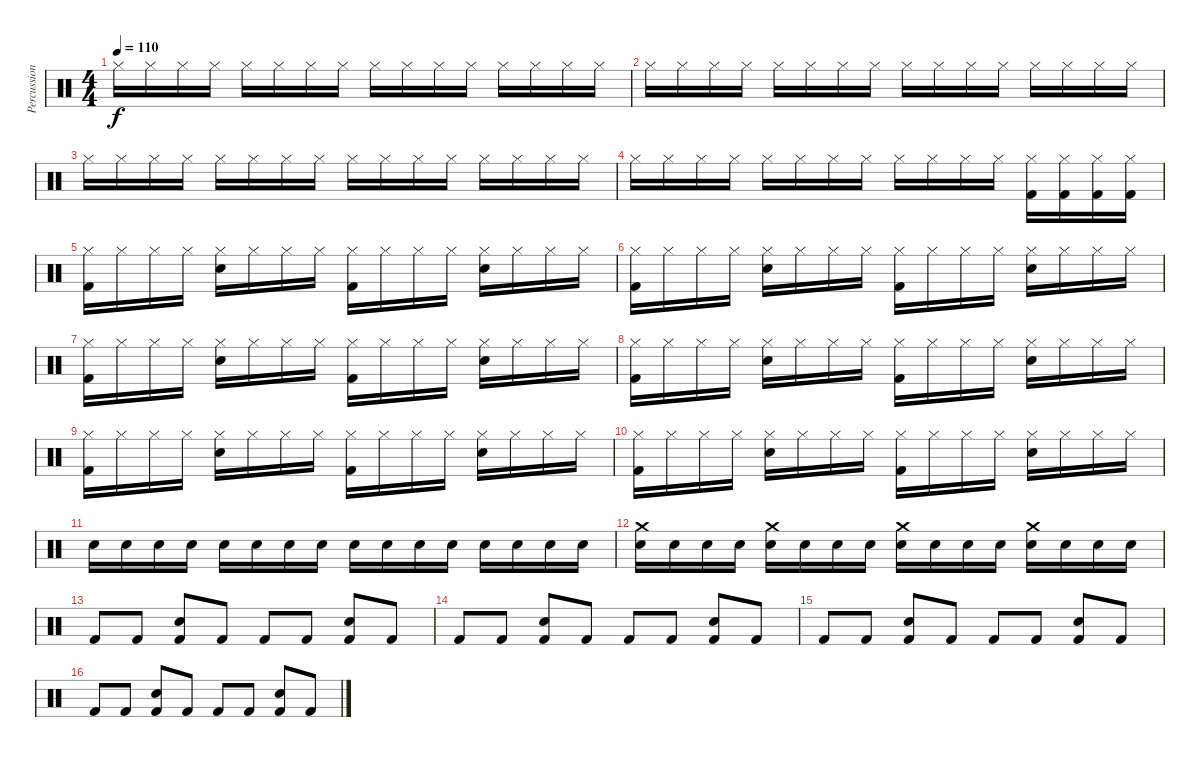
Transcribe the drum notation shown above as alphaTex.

\track ("Percussion" "Percussion") {instrument percussion}
\staff {score}
\articulation defaults
\ts (4 4)
\tempo 110
\clef neutral
\ks c "Hi-Hat (closed)".16{dy f} "Hi-Hat (closed)".16 "Hi-Hat (closed)".16 "Hi-Hat (closed)".16 "Hi-Hat (closed)".16 "Hi-Hat (closed)".16 "Hi-Hat (closed)".16 "Hi-Hat (closed)".16 "Hi-Hat (closed)".16 "Hi-Hat (closed)".16 "Hi-Hat (closed)".16 "Hi-Hat (closed)".16 "Hi-Hat (closed)".16 "Hi-Hat (closed)".16 "Hi-Hat (closed)".16 "Hi-Hat (closed)".16
|
"Hi-Hat (closed)".16 "Hi-Hat (closed)".16 "Hi-Hat (closed)".16 "Hi-Hat (closed)".16 "Hi-Hat (closed)".16 "Hi-Hat (closed)".16 "Hi-Hat (closed)".16 "Hi-Hat (closed)".16 "Hi-Hat (closed)".16 "Hi-Hat (closed)".16 "Hi-Hat (closed)".16 "Hi-Hat (closed)".16 "Hi-Hat (closed)".16 "Hi-Hat (closed)".16 "Hi-Hat (closed)".16 "Hi-Hat (closed)".16 |
"Hi-Hat (closed)".16 "Hi-Hat (closed)".16 "Hi-Hat (closed)".16 "Hi-Hat (closed)".16 "Hi-Hat (closed)".16 "Hi-Hat (closed)".16 "Hi-Hat (closed)".16 "Hi-Hat (closed)".16 "Hi-Hat (closed)".16 "Hi-Hat (closed)".16 "Hi-Hat (closed)".16 "Hi-Hat (closed)".16 "Hi-Hat (closed)".16 "Hi-Hat (closed)".16 "Hi-Hat (closed)".16 "Hi-Hat (closed)".16 |
"Hi-Hat (closed)".16 "Hi-Hat (closed)".16 "Hi-Hat (closed)".16 "Hi-Hat (closed)".16 "Hi-Hat (closed)".16 "Hi-Hat (closed)".16 "Hi-Hat (closed)".16 "Hi-Hat (closed)".16 "Hi-Hat (closed)".16 "Hi-Hat (closed)".16 "Hi-Hat (closed)".16 "Hi-Hat (closed)".16 ("Hi-Hat (closed)" "Kick (hit) 2").16 ("Hi-Hat (closed)" "Kick (hit) 2").16 ("Hi-Hat (closed)" "Kick (hit) 2").16 ("Hi-Hat (closed)" "Kick (hit) 2").16 |
("Hi-Hat (closed)" "Kick (hit) 2").16 "Hi-Hat (closed)".16 "Hi-Hat (closed)".16 "Hi-Hat (closed)".16 ("Hi-Hat (closed)" "Snare (hit) 2").16 "Hi-Hat (closed)".16 "Hi-Hat (closed)".16 "Hi-Hat (closed)".16 ("Hi-Hat (closed)" "Kick (hit) 2").16 "Hi-Hat (closed)".16 "Hi-Hat (closed)".16 "Hi-Hat (closed)".16 ("Hi-Hat (closed)" "Snare (hit) 2").16 "Hi-Hat (closed)".16 "Hi-Hat (closed)".16 "Hi-Hat (closed)".16 |
("Hi-Hat (closed)" "Kick (hit) 2").16 "Hi-Hat (closed)".16 "Hi-Hat (closed)".16 "Hi-Hat (closed)".16 ("Hi-Hat (closed)" "Snare (hit) 2").16 "Hi-Hat (closed)".16 "Hi-Hat (closed)".16 "Hi-Hat (closed)".16 ("Hi-Hat (closed)" "Kick (hit) 2").16 "Hi-Hat (closed)".16 "Hi-Hat (closed)".16 "Hi-Hat (closed)".16 ("Hi-Hat (closed)" "Snare (hit) 2").16 "Hi-Hat (closed)".16 "Hi-Hat (closed)".16 "Hi-Hat (closed)".16 |
("Hi-Hat (closed)" "Kick (hit) 2").16 "Hi-Hat (closed)".16 "Hi-Hat (closed)".16 "Hi-Hat (closed)".16 ("Hi-Hat (closed)" "Snare (hit) 2").16 "Hi-Hat (closed)".16 "Hi-Hat (closed)".16 "Hi-Hat (closed)".16 ("Hi-Hat (closed)" "Kick (hit) 2").16 "Hi-Hat (closed)".16 "Hi-Hat (closed)".16 "Hi-Hat (closed)".16 ("Hi-Hat (closed)" "Snare (hit) 2").16 "Hi-Hat (closed)".16 "Hi-Hat (closed)".16 "Hi-Hat (closed)".16 |
("Hi-Hat (closed)" "Kick (hit) 2").16 "Hi-Hat (closed)".16 "Hi-Hat (closed)".16 "Hi-Hat (closed)".16 ("Hi-Hat (closed)" "Snare (hit) 2").16 "Hi-Hat (closed)".16 "Hi-Hat (closed)".16 "Hi-Hat (closed)".16 ("Hi-Hat (closed)" "Kick (hit) 2").16 "Hi-Hat (closed)".16 "Hi-Hat (closed)".16 "Hi-Hat (closed)".16 ("Hi-Hat (closed)" "Snare (hit) 2").16 "Hi-Hat (closed)".16 "Hi-Hat (closed)".16 "Hi-Hat (closed)".16 |
("Hi-Hat (closed)" "Kick (hit) 2").16 "Hi-Hat (closed)".16 "Hi-Hat (closed)".16 "Hi-Hat (closed)".16 ("Hi-Hat (closed)" "Snare (hit) 2").16 "Hi-Hat (closed)".16 "Hi-Hat (closed)".16 "Hi-Hat (closed)".16 ("Hi-Hat (closed)" "Kick (hit) 2").16 "Hi-Hat (closed)".16 "Hi-Hat (closed)".16 "Hi-Hat (closed)".16 ("Hi-Hat (closed)" "Snare (hit) 2").16 "Hi-Hat (closed)".16 "Hi-Hat (closed)".16 "Hi-Hat (closed)".16 |
("Hi-Hat (closed)" "Kick (hit) 2").16 "Hi-Hat (closed)".16 "Hi-Hat (closed)".16 "Hi-Hat (closed)".16 ("Hi-Hat (closed)" "Snare (hit) 2").16 "Hi-Hat (closed)".16 "Hi-Hat (closed)".16 "Hi-Hat (closed)".16 ("Hi-Hat (closed)" "Kick (hit) 2").16 "Hi-Hat (closed)".16 "Hi-Hat (closed)".16 "Hi-Hat (closed)".16 ("Hi-Hat (closed)" "Snare (hit) 2").16 "Hi-Hat (closed)".16 "Hi-Hat (closed)".16 "Hi-Hat (closed)".16 |
"Snare (hit) 2".16 "Snare (hit) 2".16 "Snare (hit) 2".16 "Snare (hit) 2".16 "Snare (hit) 2".16 "Snare (hit) 2".16 "Snare (hit) 2".16 "Snare (hit) 2".16 "Snare (hit) 2".16 "Snare (hit) 2".16 "Snare (hit) 2".16 "Snare (hit) 2".16 "Snare (hit) 2".16 "Snare (hit) 2".16 "Snare (hit) 2".16 "Snare (hit) 2".16 |
("Crash medium (hit)" "Snare (hit) 2").16 "Snare (hit) 2".16 "Snare (hit) 2".16 "Snare (hit) 2".16 ("Crash medium (hit)" "Snare (hit) 2").16 "Snare (hit) 2".16 "Snare (hit) 2".16 "Snare (hit) 2".16 ("Crash medium (hit)" "Snare (hit) 2").16 "Snare (hit) 2".16 "Snare (hit) 2".16 "Snare (hit) 2".16 ("Crash medium (hit)" "Snare (hit) 2").16 "Snare (hit) 2".16 "Snare (hit) 2".16 "Snare (hit) 2".16 |
"Kick (hit) 2".8 "Kick (hit) 2".8 ("Snare (hit) 2" "Kick (hit) 2").8 "Kick (hit) 2".8 "Kick (hit) 2".8 "Kick (hit) 2".8 ("Snare (hit) 2" "Kick (hit) 2").8 "Kick (hit) 2".8 |
"Kick (hit) 2".8 "Kick (hit) 2".8 ("Snare (hit) 2" "Kick (hit) 2").8 "Kick (hit) 2".8 "Kick (hit) 2".8 "Kick (hit) 2".8 ("Snare (hit) 2" "Kick (hit) 2").8 "Kick (hit) 2".8 |
"Kick (hit) 2".8 "Kick (hit) 2".8 ("Snare (hit) 2" "Kick (hit) 2").8 "Kick (hit) 2".8 "Kick (hit) 2".8 "Kick (hit) 2".8 ("Snare (hit) 2" "Kick (hit) 2").8 "Kick (hit) 2".8 |
"Kick (hit) 2".8 "Kick (hit) 2".8 ("Snare (hit) 2" "Kick (hit) 2").8 "Kick (hit) 2".8 "Kick (hit) 2".8 "Kick (hit) 2".8 ("Snare (hit) 2" "Kick (hit) 2").8 "Kick (hit) 2".8
